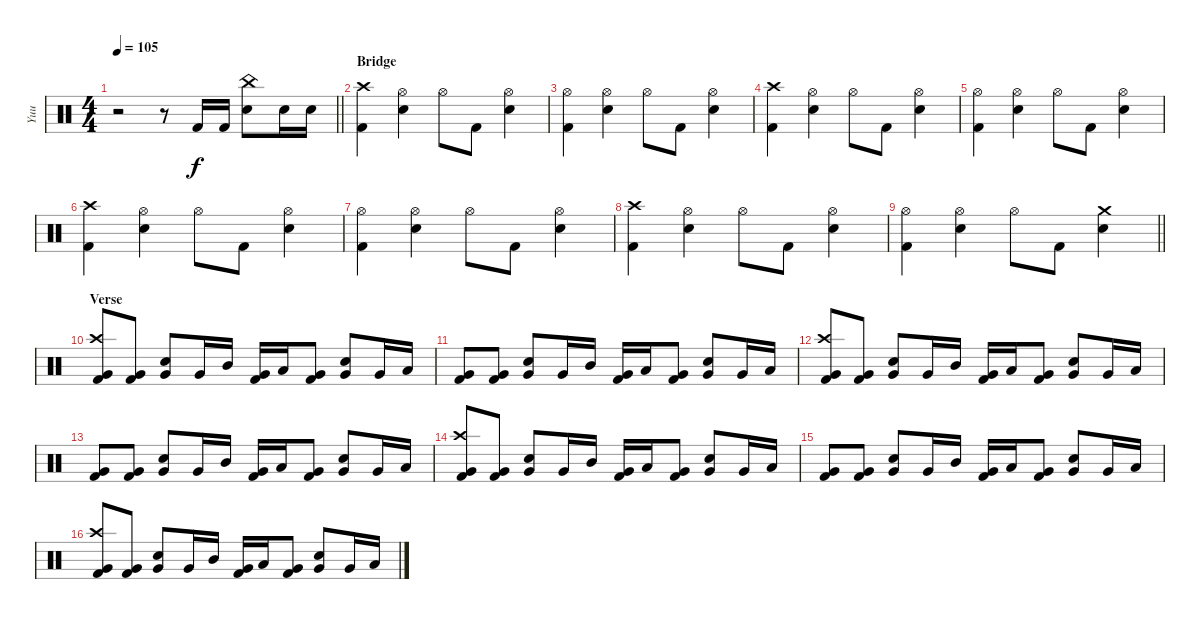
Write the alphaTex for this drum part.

\track ("Yuu" "Yuu") {instrument percussion}
\staff {score}
\articulation defaults
\ts (4 4)
\tempo 105
\clef neutral
\barLineRight lightlight
\ks c
r.2{dy f} r.8 "Kick (hit) 2".16 "Kick (hit) 2".16 ("China (hit)" "Electric Snare (hit)").8 "Electric Snare (hit)".16 "Electric Snare (hit)".16 |
\section ("" "Bridge")
("Crash high (hit)" "Kick (hit) 2").4 ("Hi-Hat (open)" "Electric Snare (hit)").4 "Hi-Hat (open)".8 "Kick (hit) 2".8 ("Hi-Hat (open)" "Electric Snare (hit)").4 |
("Hi-Hat (open)" "Kick (hit) 2").4 ("Hi-Hat (open)" "Electric Snare (hit)").4 "Hi-Hat (open)".8 "Kick (hit) 2".8 ("Hi-Hat (open)" "Electric Snare (hit)").4 |
("Crash high (hit)" "Kick (hit) 2").4 ("Hi-Hat (open)" "Electric Snare (hit)").4 "Hi-Hat (open)".8 "Kick (hit) 2".8 ("Hi-Hat (open)" "Electric Snare (hit)").4 |
("Hi-Hat (open)" "Kick (hit) 2").4 ("Hi-Hat (open)" "Electric Snare (hit)").4 "Hi-Hat (open)".8 "Kick (hit) 2".8 ("Hi-Hat (open)" "Electric Snare (hit)").4 |
("Crash high (hit)" "Kick (hit) 2").4 ("Hi-Hat (open)" "Electric Snare (hit)").4 "Hi-Hat (open)".8 "Kick (hit) 2".8 ("Hi-Hat (open)" "Electric Snare (hit)").4 |
("Hi-Hat (open)" "Kick (hit) 2").4 ("Hi-Hat (open)" "Electric Snare (hit)").4 "Hi-Hat (open)".8 "Kick (hit) 2".8 ("Hi-Hat (open)" "Electric Snare (hit)").4 |
("Crash high (hit)" "Kick (hit) 2").4 ("Hi-Hat (open)" "Electric Snare (hit)").4 "Hi-Hat (open)".8 "Kick (hit) 2".8 ("Hi-Hat (open)" "Electric Snare (hit)").4 |
\barLineRight lightlight
("Hi-Hat (open)" "Kick (hit) 2").4 ("Hi-Hat (open)" "Electric Snare (hit)").4 "Hi-Hat (open)".8 "Kick (hit) 2".8 ("Crash medium (hit)" "Electric Snare (hit)").4 |
\section ("" "Verse")
("Crash high (hit)" "Very Low Tom (hit)" "Kick (hit) 2").8 ("Very Low Tom (hit)" "Kick (hit) 2").8 ("Electric Snare (hit)" "Very Low Tom (hit)").8 "Very Low Tom (hit)".16 "Mid Tom (hit)".16 ("Very Low Tom (hit)" "Kick (hit) 2").16 "Low Tom (hit)".16 ("Very Low Tom (hit)" "Kick (hit) 2").8 ("Electric Snare (hit)" "Very Low Tom (hit)").8 "Very Low Tom (hit)".16 "Low Floor Tom (hit)".16 |
("Very Low Tom (hit)" "Kick (hit) 2").8 ("Very Low Tom (hit)" "Kick (hit) 2").8 ("Electric Snare (hit)" "Very Low Tom (hit)").8 "Very Low Tom (hit)".16 "Mid Tom (hit)".16 ("Very Low Tom (hit)" "Kick (hit) 2").16 "Low Tom (hit)".16 ("Very Low Tom (hit)" "Kick (hit) 2").8 ("Electric Snare (hit)" "Very Low Tom (hit)").8 "Very Low Tom (hit)".16 "Low Floor Tom (hit)".16 |
("Crash high (hit)" "Very Low Tom (hit)" "Kick (hit) 2").8 ("Very Low Tom (hit)" "Kick (hit) 2").8 ("Electric Snare (hit)" "Very Low Tom (hit)").8 "Very Low Tom (hit)".16 "Mid Tom (hit)".16 ("Very Low Tom (hit)" "Kick (hit) 2").16 "Low Tom (hit)".16 ("Very Low Tom (hit)" "Kick (hit) 2").8 ("Electric Snare (hit)" "Very Low Tom (hit)").8 "Very Low Tom (hit)".16 "Low Floor Tom (hit)".16 |
("Very Low Tom (hit)" "Kick (hit) 2").8 ("Very Low Tom (hit)" "Kick (hit) 2").8 ("Electric Snare (hit)" "Very Low Tom (hit)").8 "Very Low Tom (hit)".16 "Mid Tom (hit)".16 ("Very Low Tom (hit)" "Kick (hit) 2").16 "Low Tom (hit)".16 ("Very Low Tom (hit)" "Kick (hit) 2").8 ("Electric Snare (hit)" "Very Low Tom (hit)").8 "Very Low Tom (hit)".16 "Low Floor Tom (hit)".16 |
("Crash high (hit)" "Very Low Tom (hit)" "Kick (hit) 2").8 ("Very Low Tom (hit)" "Kick (hit) 2").8 ("Electric Snare (hit)" "Very Low Tom (hit)").8 "Very Low Tom (hit)".16 "Mid Tom (hit)".16 ("Very Low Tom (hit)" "Kick (hit) 2").16 "Low Tom (hit)".16 ("Very Low Tom (hit)" "Kick (hit) 2").8 ("Electric Snare (hit)" "Very Low Tom (hit)").8 "Very Low Tom (hit)".16 "Low Floor Tom (hit)".16 |
("Very Low Tom (hit)" "Kick (hit) 2").8 ("Very Low Tom (hit)" "Kick (hit) 2").8 ("Electric Snare (hit)" "Very Low Tom (hit)").8 "Very Low Tom (hit)".16 "Mid Tom (hit)".16 ("Very Low Tom (hit)" "Kick (hit) 2").16 "Low Tom (hit)".16 ("Very Low Tom (hit)" "Kick (hit) 2").8 ("Electric Snare (hit)" "Very Low Tom (hit)").8 "Very Low Tom (hit)".16 "Low Floor Tom (hit)".16 |
("Crash high (hit)" "Very Low Tom (hit)" "Kick (hit) 2").8 ("Very Low Tom (hit)" "Kick (hit) 2").8 ("Electric Snare (hit)" "Very Low Tom (hit)").8 "Very Low Tom (hit)".16 "Mid Tom (hit)".16 ("Very Low Tom (hit)" "Kick (hit) 2").16 "Low Tom (hit)".16 ("Very Low Tom (hit)" "Kick (hit) 2").8 ("Electric Snare (hit)" "Very Low Tom (hit)").8 "Very Low Tom (hit)".16 "Low Floor Tom (hit)".16
